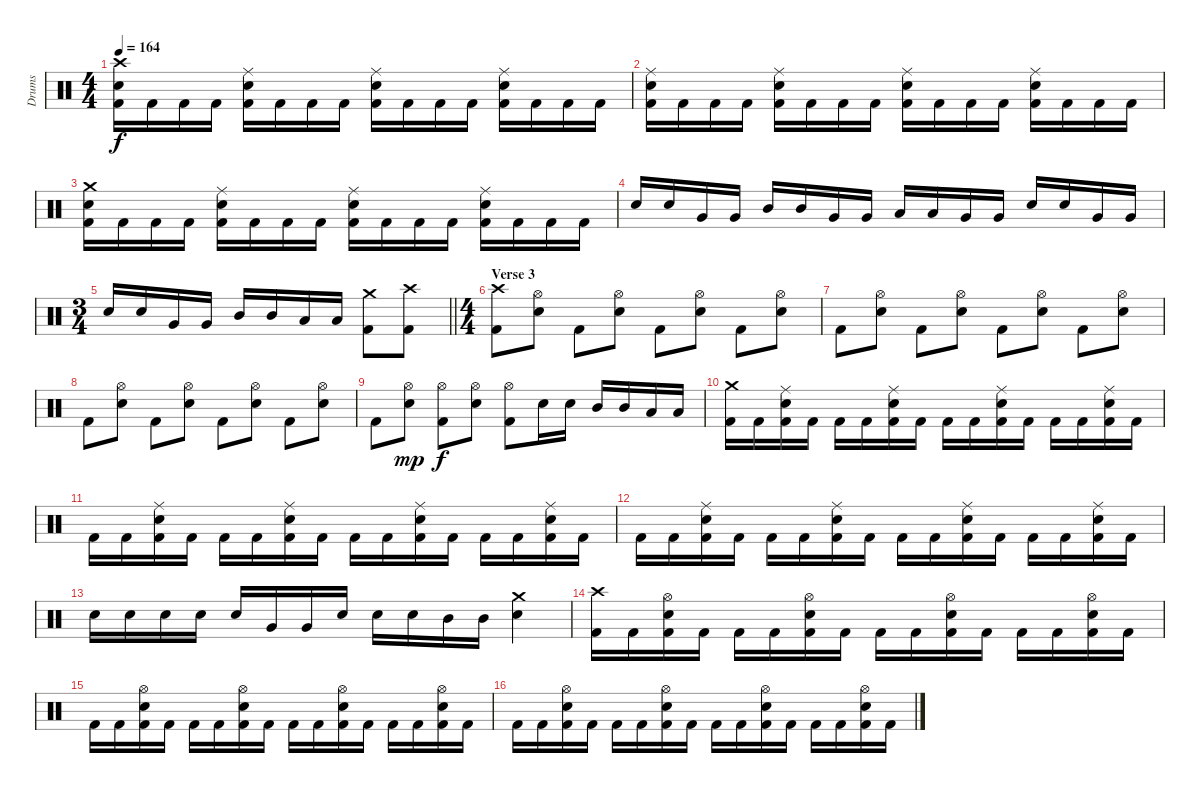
\track ("Drums" "Drums") {instrument percussion}
\staff {score}
\articulation defaults
\ts (4 4)
\tempo 164
\clef neutral
\ks c
("Crash high (hit)" "Electric Snare (hit)" "Kick (hit) 2").16{dy f} "Kick (hit) 2".16 "Kick (hit) 2".16 "Kick (hit) 2".16 ("Ride (middle)" "Electric Snare (hit)" "Kick (hit) 2").16 "Kick (hit) 2".16 "Kick (hit) 2".16 "Kick (hit) 2".16 ("Ride (middle)" "Electric Snare (hit)" "Kick (hit) 2").16 "Kick (hit) 2".16 "Kick (hit) 2".16 "Kick (hit) 2".16 ("Ride (middle)" "Electric Snare (hit)" "Kick (hit) 2").16 "Kick (hit) 2".16 "Kick (hit) 2".16 "Kick (hit) 2".16 |
("Ride (middle)" "Electric Snare (hit)" "Kick (hit) 2").16 "Kick (hit) 2".16 "Kick (hit) 2".16 "Kick (hit) 2".16 ("Ride (middle)" "Electric Snare (hit)" "Kick (hit) 2").16 "Kick (hit) 2".16 "Kick (hit) 2".16 "Kick (hit) 2".16 ("Ride (middle)" "Electric Snare (hit)" "Kick (hit) 2").16 "Kick (hit) 2".16 "Kick (hit) 2".16 "Kick (hit) 2".16 ("Ride (middle)" "Electric Snare (hit)" "Kick (hit) 2").16 "Kick (hit) 2".16 "Kick (hit) 2".16 "Kick (hit) 2".16 |
("Crash medium (hit)" "Electric Snare (hit)" "Kick (hit) 2").16 "Kick (hit) 2".16 "Kick (hit) 2".16 "Kick (hit) 2".16 ("Ride (middle)" "Electric Snare (hit)" "Kick (hit) 2").16 "Kick (hit) 2".16 "Kick (hit) 2".16 "Kick (hit) 2".16 ("Ride (middle)" "Electric Snare (hit)" "Kick (hit) 2").16 "Kick (hit) 2".16 "Kick (hit) 2".16 "Kick (hit) 2".16 ("Ride (middle)" "Electric Snare (hit)" "Kick (hit) 2").16 "Kick (hit) 2".16 "Kick (hit) 2".16 "Kick (hit) 2".16 |
"Electric Snare (hit)".16 "Electric Snare (hit)".16 "Very Low Tom (hit)".16 "Very Low Tom (hit)".16 "Mid Tom (hit)".16 "Mid Tom (hit)".16 "Very Low Tom (hit)".16 "Very Low Tom (hit)".16 "Low Tom (hit)".16 "Low Tom (hit)".16 "Very Low Tom (hit)".16 "Very Low Tom (hit)".16 "Electric Snare (hit)".16 "Electric Snare (hit)".16 "Very Low Tom (hit)".16 "Very Low Tom (hit)".16 |
\ts (3 4)
\barLineRight lightlight "Electric Snare (hit)".16 "Electric Snare (hit)".16 "Very Low Tom (hit)".16 "Very Low Tom (hit)".16 "Mid Tom (hit)".16 "Mid Tom (hit)".16 "Low Tom (hit)".16 "Low Tom (hit)".16
("Crash medium (hit)" "Kick (hit) 2").8 ("Crash high (hit)" "Kick (hit) 2").8 |
\ts (4 4)
\section ("" "Verse 3")
("Crash high (hit)" "Kick (hit) 2").8 ("Hi-Hat (open)" "Electric Snare (hit)").8 "Kick (hit) 2".8 ("Hi-Hat (open)" "Electric Snare (hit)").8 "Kick (hit) 2".8 ("Hi-Hat (open)" "Electric Snare (hit)").8 "Kick (hit) 2".8 ("Hi-Hat (open)" "Electric Snare (hit)").8 |
"Kick (hit) 2".8 ("Hi-Hat (open)" "Electric Snare (hit)").8 "Kick (hit) 2".8 ("Hi-Hat (open)" "Electric Snare (hit)").8 "Kick (hit) 2".8 ("Hi-Hat (open)" "Electric Snare (hit)").8 "Kick (hit) 2".8 ("Hi-Hat (open)" "Electric Snare (hit)").8 |
"Kick (hit) 2".8 ("Hi-Hat (open)" "Electric Snare (hit)").8 "Kick (hit) 2".8 ("Hi-Hat (open)" "Electric Snare (hit)").8 "Kick (hit) 2".8 ("Hi-Hat (open)" "Electric Snare (hit)").8 "Kick (hit) 2".8 ("Hi-Hat (open)" "Electric Snare (hit)").8 |
"Kick (hit) 2".8 ("Hi-Hat (open)" "Electric Snare (hit)").8{dy mp} ("Hi-Hat (open)" "Kick (hit) 2").8{dy f} ("Hi-Hat (open)" "Electric Snare (hit)").8 ("Hi-Hat (open)" "Kick (hit) 2").8 "Electric Snare (hit)".16 "Electric Snare (hit)".16 "Mid Tom (hit)".16 "Mid Tom (hit)".16 "Low Tom (hit)".16 "Low Tom (hit)".16 |
("Crash medium (hit)" "Kick (hit) 2").16 "Kick (hit) 2".16 ("Ride (middle)" "Electric Snare (hit)" "Kick (hit) 2").16 "Kick (hit) 2".16 "Kick (hit) 2".16 "Kick (hit) 2".16 ("Ride (middle)" "Electric Snare (hit)" "Kick (hit) 2").16 "Kick (hit) 2".16 "Kick (hit) 2".16 "Kick (hit) 2".16 ("Ride (middle)" "Electric Snare (hit)" "Kick (hit) 2").16 "Kick (hit) 2".16 "Kick (hit) 2".16 "Kick (hit) 2".16 ("Ride (middle)" "Electric Snare (hit)" "Kick (hit) 2").16 "Kick (hit) 2".16 |
"Kick (hit) 2".16 "Kick (hit) 2".16 ("Ride (middle)" "Electric Snare (hit)" "Kick (hit) 2").16 "Kick (hit) 2".16 "Kick (hit) 2".16 "Kick (hit) 2".16 ("Ride (middle)" "Electric Snare (hit)" "Kick (hit) 2").16 "Kick (hit) 2".16 "Kick (hit) 2".16 "Kick (hit) 2".16 ("Ride (middle)" "Electric Snare (hit)" "Kick (hit) 2").16 "Kick (hit) 2".16 "Kick (hit) 2".16 "Kick (hit) 2".16 ("Ride (middle)" "Electric Snare (hit)" "Kick (hit) 2").16 "Kick (hit) 2".16 |
"Kick (hit) 2".16 "Kick (hit) 2".16 ("Ride (middle)" "Electric Snare (hit)" "Kick (hit) 2").16 "Kick (hit) 2".16 "Kick (hit) 2".16 "Kick (hit) 2".16 ("Ride (middle)" "Electric Snare (hit)" "Kick (hit) 2").16 "Kick (hit) 2".16 "Kick (hit) 2".16 "Kick (hit) 2".16 ("Ride (middle)" "Electric Snare (hit)" "Kick (hit) 2").16 "Kick (hit) 2".16 "Kick (hit) 2".16 "Kick (hit) 2".16 ("Ride (middle)" "Electric Snare (hit)" "Kick (hit) 2").16 "Kick (hit) 2".16 |
"Electric Snare (hit)".16 "Electric Snare (hit)".16 "Electric Snare (hit)".16 "Electric Snare (hit)".16 "Electric Snare (hit)".16 "Very Low Tom (hit)".16 "Very Low Tom (hit)".16 "Electric Snare (hit)".16 "Electric Snare (hit)".16 "Electric Snare (hit)".16 "Mid Tom (hit)".16 "Mid Tom (hit)".16 ("Crash medium (hit)" "Electric Snare (hit)").4 |
("Crash high (hit)" "Kick (hit) 2").16 "Kick (hit) 2".16 ("Hi-Hat (open)" "Electric Snare (hit)" "Kick (hit) 2").16 "Kick (hit) 2".16 "Kick (hit) 2".16 "Kick (hit) 2".16 ("Hi-Hat (open)" "Electric Snare (hit)" "Kick (hit) 2").16 "Kick (hit) 2".16 "Kick (hit) 2".16 "Kick (hit) 2".16 ("Hi-Hat (open)" "Electric Snare (hit)" "Kick (hit) 2").16 "Kick (hit) 2".16 "Kick (hit) 2".16 "Kick (hit) 2".16 ("Hi-Hat (open)" "Electric Snare (hit)" "Kick (hit) 2").16 "Kick (hit) 2".16 |
"Kick (hit) 2".16 "Kick (hit) 2".16 ("Hi-Hat (open)" "Electric Snare (hit)" "Kick (hit) 2").16 "Kick (hit) 2".16 "Kick (hit) 2".16 "Kick (hit) 2".16 ("Hi-Hat (open)" "Electric Snare (hit)" "Kick (hit) 2").16 "Kick (hit) 2".16 "Kick (hit) 2".16 "Kick (hit) 2".16 ("Hi-Hat (open)" "Electric Snare (hit)" "Kick (hit) 2").16 "Kick (hit) 2".16 "Kick (hit) 2".16 "Kick (hit) 2".16 ("Hi-Hat (open)" "Electric Snare (hit)" "Kick (hit) 2").16 "Kick (hit) 2".16 |
"Kick (hit) 2".16 "Kick (hit) 2".16 ("Hi-Hat (open)" "Electric Snare (hit)" "Kick (hit) 2").16 "Kick (hit) 2".16 "Kick (hit) 2".16 "Kick (hit) 2".16 ("Hi-Hat (open)" "Electric Snare (hit)" "Kick (hit) 2").16 "Kick (hit) 2".16 "Kick (hit) 2".16 "Kick (hit) 2".16 ("Hi-Hat (open)" "Electric Snare (hit)" "Kick (hit) 2").16 "Kick (hit) 2".16 "Kick (hit) 2".16 "Kick (hit) 2".16 ("Hi-Hat (open)" "Electric Snare (hit)" "Kick (hit) 2").16 "Kick (hit) 2".16
